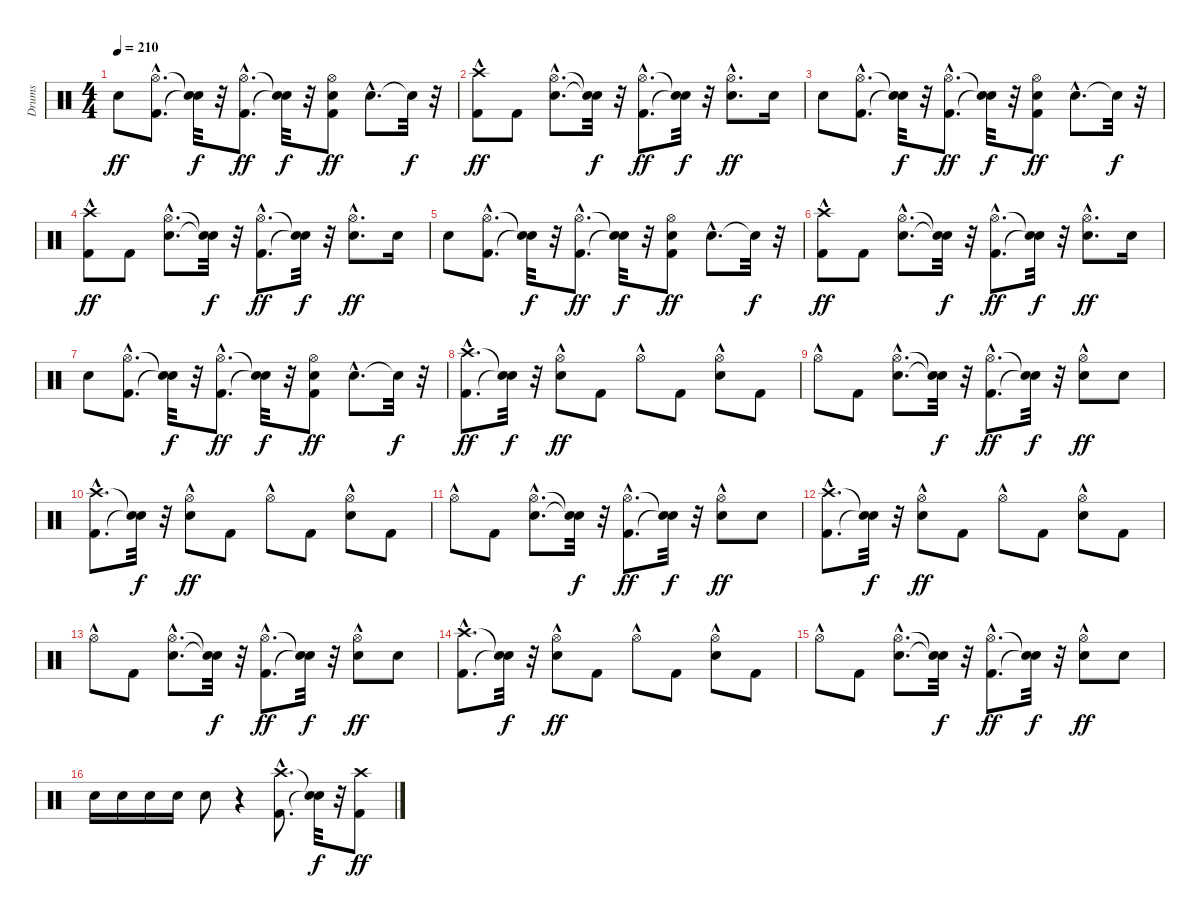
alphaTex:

\track ("Drums" "Drums") {instrument percussion}
\staff {score}
\articulation defaults
\ts (4 4)
\tempo 210
\clef neutral
\ks c "Snare (hit) 2".8{dy ff}
("Kick (hit) 2"{hac} "Hi-Hat (open)"{hac}).8{d} ("Snare (hit)"{t} "Snare (hit)"{t}).32{dy f} r.32 ("Kick (hit) 2"{hac} "Hi-Hat (open)"{hac}).8{d dy ff} ("Snare (hit)"{t} "Snare (hit)"{t}).32{dy f} r.32 ("Kick (hit) 2" "Snare (hit) 2" "Hi-Hat (open)").8{dy ff} "Snare (hit) 2"{hac}.8{d} "Snare (hit)"{t}.32{dy f} r.32 |
("Kick (hit) 2" "Crash high (hit)"{hac}).8{dy ff} "Kick (hit) 2".8 ("Snare (hit) 2"{hac} "Hi-Hat (open)"{hac}).8{d} ("Snare (hit)"{t} "Snare (hit)"{t}).32{dy f} r.32 ("Kick (hit) 2"{hac} "Hi-Hat (open)"{hac}).8{d dy ff} ("Snare (hit)"{t} "Snare (hit)"{t}).32{dy f} r.32 ("Snare (hit) 2"{hac} "Hi-Hat (open)"{hac}).8{d dy ff} "Snare (hit) 2".16 |
"Snare (hit) 2".8 ("Kick (hit) 2"{hac} "Hi-Hat (open)"{hac}).8{d} ("Snare (hit)"{t} "Snare (hit)"{t}).32{dy f} r.32 ("Kick (hit) 2"{hac} "Hi-Hat (open)"{hac}).8{d dy ff} ("Snare (hit)"{t} "Snare (hit)"{t}).32{dy f} r.32 ("Kick (hit) 2" "Snare (hit) 2" "Hi-Hat (open)").8{dy ff} "Snare (hit) 2"{hac}.8{d} "Snare (hit)"{t}.32{dy f} r.32 |
("Kick (hit) 2" "Crash high (hit)"{hac}).8{dy ff} "Kick (hit) 2".8 ("Snare (hit) 2"{hac} "Hi-Hat (open)"{hac}).8{d} ("Snare (hit)"{t} "Snare (hit)"{t}).32{dy f} r.32 ("Kick (hit) 2"{hac} "Hi-Hat (open)"{hac}).8{d dy ff} ("Snare (hit)"{t} "Snare (hit)"{t}).32{dy f} r.32 ("Snare (hit) 2"{hac} "Hi-Hat (open)"{hac}).8{d dy ff} "Snare (hit) 2".16 |
"Snare (hit) 2".8 ("Kick (hit) 2"{hac} "Hi-Hat (open)"{hac}).8{d} ("Snare (hit)"{t} "Snare (hit)"{t}).32{dy f} r.32 ("Kick (hit) 2"{hac} "Hi-Hat (open)"{hac}).8{d dy ff} ("Snare (hit)"{t} "Snare (hit)"{t}).32{dy f} r.32 ("Kick (hit) 2" "Snare (hit) 2" "Hi-Hat (open)").8{dy ff} "Snare (hit) 2"{hac}.8{d} "Snare (hit)"{t}.32{dy f} r.32 |
("Kick (hit) 2" "Crash high (hit)"{hac}).8{dy ff} "Kick (hit) 2".8 ("Snare (hit) 2"{hac} "Hi-Hat (open)"{hac}).8{d} ("Snare (hit)"{t} "Snare (hit)"{t}).32{dy f} r.32 ("Kick (hit) 2"{hac} "Hi-Hat (open)"{hac}).8{d dy ff} ("Snare (hit)"{t} "Snare (hit)"{t}).32{dy f} r.32 ("Snare (hit) 2"{hac} "Hi-Hat (open)"{hac}).8{d dy ff} "Snare (hit) 2".16 |
"Snare (hit) 2".8 ("Kick (hit) 2"{hac} "Hi-Hat (open)"{hac}).8{d} ("Snare (hit)"{t} "Snare (hit)"{t}).32{dy f} r.32 ("Kick (hit) 2"{hac} "Hi-Hat (open)"{hac}).8{d dy ff} ("Snare (hit)"{t} "Snare (hit)"{t}).32{dy f} r.32 ("Kick (hit) 2" "Snare (hit) 2" "Hi-Hat (open)").8{dy ff} "Snare (hit) 2"{hac}.8{d} "Snare (hit)"{t}.32{dy f} r.32 |
("Kick (hit) 2"{hac} "Crash high (hit)"{hac}).8{d dy ff} ("Snare (hit)"{t} "Snare (hit)"{t}).32{dy f} r.32 ("Snare (hit) 2" "Hi-Hat (open)"{hac}).8{dy ff} "Kick (hit) 2".8 "Hi-Hat (open)"{hac}.8 "Kick (hit) 2".8 ("Snare (hit) 2" "Hi-Hat (open)"{hac}).8 "Kick (hit) 2".8 |
"Hi-Hat (open)"{hac}.8 "Kick (hit) 2".8 ("Snare (hit) 2"{hac} "Hi-Hat (open)"{hac}).8{d} ("Snare (hit)"{t} "Snare (hit)"{t}).32{dy f} r.32 ("Kick (hit) 2"{hac} "Hi-Hat (open)"{hac}).8{d dy ff} ("Snare (hit)"{t} "Snare (hit)"{t}).32{dy f} r.32 ("Snare (hit) 2" "Hi-Hat (open)"{hac}).8{dy ff} "Snare (hit) 2".8 |
("Kick (hit) 2"{hac} "Crash high (hit)"{hac}).8{d} ("Snare (hit)"{t} "Snare (hit)"{t}).32{dy f} r.32 ("Snare (hit) 2" "Hi-Hat (open)"{hac}).8{dy ff} "Kick (hit) 2".8 "Hi-Hat (open)"{hac}.8 "Kick (hit) 2".8 ("Snare (hit) 2" "Hi-Hat (open)"{hac}).8 "Kick (hit) 2".8 |
"Hi-Hat (open)"{hac}.8 "Kick (hit) 2".8 ("Snare (hit) 2"{hac} "Hi-Hat (open)"{hac}).8{d} ("Snare (hit)"{t} "Snare (hit)"{t}).32{dy f} r.32 ("Kick (hit) 2"{hac} "Hi-Hat (open)"{hac}).8{d dy ff} ("Snare (hit)"{t} "Snare (hit)"{t}).32{dy f} r.32 ("Snare (hit) 2" "Hi-Hat (open)"{hac}).8{dy ff} "Snare (hit) 2".8 |
("Kick (hit) 2"{hac} "Crash high (hit)"{hac}).8{d} ("Snare (hit)"{t} "Snare (hit)"{t}).32{dy f} r.32 ("Snare (hit) 2" "Hi-Hat (open)"{hac}).8{dy ff} "Kick (hit) 2".8 "Hi-Hat (open)"{hac}.8 "Kick (hit) 2".8 ("Snare (hit) 2" "Hi-Hat (open)"{hac}).8 "Kick (hit) 2".8 |
"Hi-Hat (open)"{hac}.8 "Kick (hit) 2".8 ("Snare (hit) 2"{hac} "Hi-Hat (open)"{hac}).8{d} ("Snare (hit)"{t} "Snare (hit)"{t}).32{dy f} r.32 ("Kick (hit) 2"{hac} "Hi-Hat (open)"{hac}).8{d dy ff} ("Snare (hit)"{t} "Snare (hit)"{t}).32{dy f} r.32 ("Snare (hit) 2" "Hi-Hat (open)"{hac}).8{dy ff} "Snare (hit) 2".8 |
("Kick (hit) 2"{hac} "Crash high (hit)"{hac}).8{d} ("Snare (hit)"{t} "Snare (hit)"{t}).32{dy f} r.32 ("Snare (hit) 2" "Hi-Hat (open)"{hac}).8{dy ff} "Kick (hit) 2".8 "Hi-Hat (open)"{hac}.8 "Kick (hit) 2".8 ("Snare (hit) 2" "Hi-Hat (open)"{hac}).8 "Kick (hit) 2".8 |
"Hi-Hat (open)"{hac}.8 "Kick (hit) 2".8 ("Snare (hit) 2"{hac} "Hi-Hat (open)"{hac}).8{d} ("Snare (hit)"{t} "Snare (hit)"{t}).32{dy f} r.32 ("Kick (hit) 2"{hac} "Hi-Hat (open)"{hac}).8{d dy ff} ("Snare (hit)"{t} "Snare (hit)"{t}).32{dy f} r.32 ("Snare (hit) 2" "Hi-Hat (open)"{hac}).8{dy ff} "Snare (hit) 2".8 |
"Snare (hit) 2".16 "Snare (hit) 2".16 "Snare (hit) 2".16 "Snare (hit) 2".16 "Snare (hit) 2".8 r.4 ("Kick (hit) 2"{hac} "Crash high (hit)"{hac}).8{d} ("Snare (hit)"{t} "Snare (hit)"{t}).32{dy f} r.32 ("Kick (hit) 2" "Crash high (hit)").8{dy ff}
